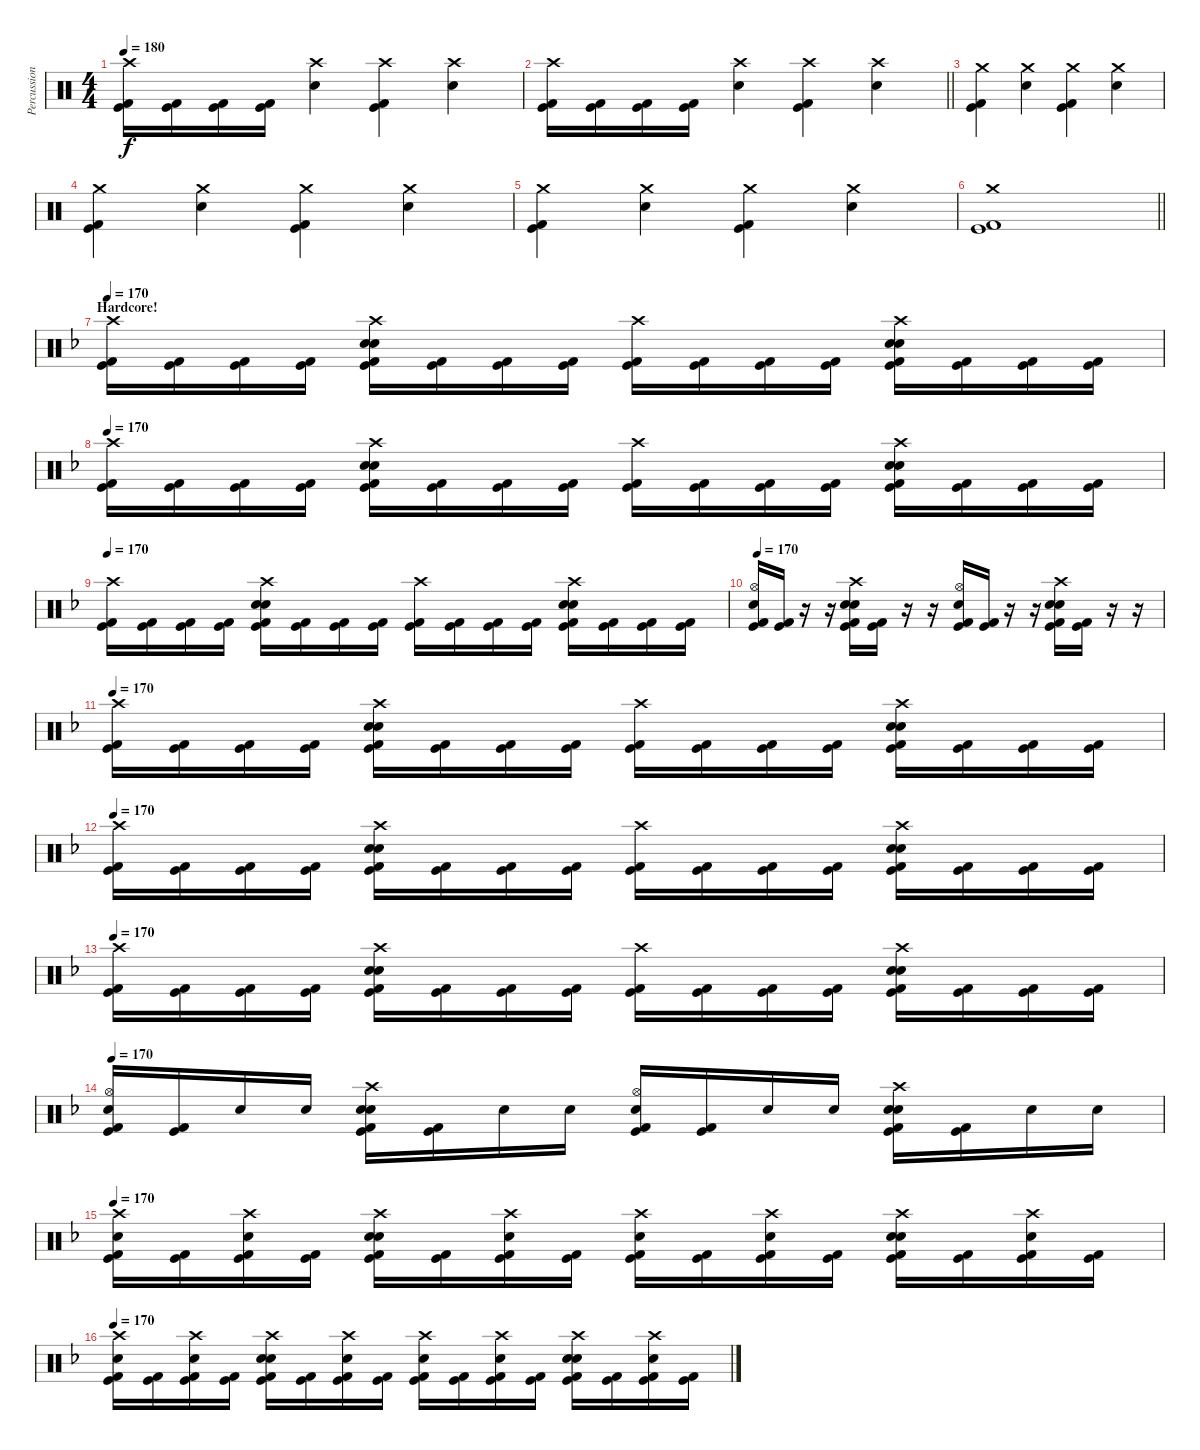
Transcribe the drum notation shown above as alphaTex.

\track ("Percussion" "Percussion") {instrument percussion}
\staff {score}
\articulation defaults
\ts (4 4)
\tempo 180
\clef neutral
\ks c
("Crash high (hit)" "Kick (hit) 2" "Kick (hit)").16{dy f} ("Kick (hit) 2" "Kick (hit)").16 ("Kick (hit) 2" "Kick (hit)").16 ("Kick (hit) 2" "Kick (hit)").16 ("Crash high (hit)" "Electric Snare (hit)").4 ("Crash high (hit)" "Kick (hit) 2" "Kick (hit)").4 ("Crash high (hit)" "Electric Snare (hit)").4 |
\barLineRight lightlight
("Crash high (hit)" "Kick (hit) 2" "Kick (hit)").16 ("Kick (hit) 2" "Kick (hit)").16 ("Kick (hit) 2" "Kick (hit)").16 ("Kick (hit) 2" "Kick (hit)").16 ("Crash high (hit)" "Electric Snare (hit)").4 ("Crash high (hit)" "Kick (hit) 2" "Kick (hit)").4 ("Crash high (hit)" "Electric Snare (hit)").4 |
("Crash medium (hit)" "Kick (hit) 2" "Kick (hit)").4 ("Crash medium (hit)" "Electric Snare (hit)").4 ("Crash medium (hit)" "Kick (hit) 2" "Kick (hit)").4 ("Crash medium (hit)" "Electric Snare (hit)").4 |
("Crash medium (hit)" "Kick (hit) 2" "Kick (hit)").4 ("Crash medium (hit)" "Electric Snare (hit)").4 ("Crash medium (hit)" "Kick (hit) 2" "Kick (hit)").4 ("Crash medium (hit)" "Electric Snare (hit)").4 |
("Crash medium (hit)" "Kick (hit) 2" "Kick (hit)").4 ("Crash medium (hit)" "Electric Snare (hit)").4 ("Crash medium (hit)" "Kick (hit) 2" "Kick (hit)").4 ("Crash medium (hit)" "Electric Snare (hit)").4 |
\barLineRight lightlight
("Crash medium (hit)" "Kick (hit) 2" "Kick (hit)").1 |
\section ("" "Hardcore!")
\tempo 170
\ks dminor
("Crash high (hit)" "Kick (hit) 2" "Kick (hit)").16 ("Kick (hit) 2" "Kick (hit)").16 ("Kick (hit) 2" "Kick (hit)").16 ("Kick (hit) 2" "Kick (hit)").16 ("Crash high (hit)" "Electric Snare (hit)" "Electric Snare (hit)" "Kick (hit) 2" "Kick (hit)").16 ("Kick (hit) 2" "Kick (hit)").16 ("Kick (hit) 2" "Kick (hit)").16 ("Kick (hit) 2" "Kick (hit)").16 ("Crash high (hit)" "Kick (hit) 2" "Kick (hit)").16 ("Kick (hit) 2" "Kick (hit)").16 ("Kick (hit) 2" "Kick (hit)").16 ("Kick (hit) 2" "Kick (hit)").16 ("Crash high (hit)" "Electric Snare (hit)" "Electric Snare (hit)" "Kick (hit) 2" "Kick (hit)").16 ("Kick (hit) 2" "Kick (hit)").16 ("Kick (hit) 2" "Kick (hit)").16 ("Kick (hit) 2" "Kick (hit)").16 |
\tempo 170
("Crash high (hit)" "Kick (hit) 2" "Kick (hit)").16 ("Kick (hit) 2" "Kick (hit)").16 ("Kick (hit) 2" "Kick (hit)").16 ("Kick (hit) 2" "Kick (hit)").16 ("Crash high (hit)" "Electric Snare (hit)" "Electric Snare (hit)" "Kick (hit) 2" "Kick (hit)").16 ("Kick (hit) 2" "Kick (hit)").16 ("Kick (hit) 2" "Kick (hit)").16 ("Kick (hit) 2" "Kick (hit)").16 ("Crash high (hit)" "Kick (hit) 2" "Kick (hit)").16 ("Kick (hit) 2" "Kick (hit)").16 ("Kick (hit) 2" "Kick (hit)").16 ("Kick (hit) 2" "Kick (hit)").16 ("Crash high (hit)" "Electric Snare (hit)" "Electric Snare (hit)" "Kick (hit) 2" "Kick (hit)").16 ("Kick (hit) 2" "Kick (hit)").16 ("Kick (hit) 2" "Kick (hit)").16 ("Kick (hit) 2" "Kick (hit)").16 |
\tempo 170
("Crash high (hit)" "Kick (hit) 2" "Kick (hit)").16 ("Kick (hit) 2" "Kick (hit)").16 ("Kick (hit) 2" "Kick (hit)").16 ("Kick (hit) 2" "Kick (hit)").16 ("Crash high (hit)" "Electric Snare (hit)" "Electric Snare (hit)" "Kick (hit) 2" "Kick (hit)").16 ("Kick (hit) 2" "Kick (hit)").16 ("Kick (hit) 2" "Kick (hit)").16 ("Kick (hit) 2" "Kick (hit)").16 ("Crash high (hit)" "Kick (hit) 2" "Kick (hit)").16 ("Kick (hit) 2" "Kick (hit)").16 ("Kick (hit) 2" "Kick (hit)").16 ("Kick (hit) 2" "Kick (hit)").16 ("Crash high (hit)" "Electric Snare (hit)" "Electric Snare (hit)" "Kick (hit) 2" "Kick (hit)").16 ("Kick (hit) 2" "Kick (hit)").16 ("Kick (hit) 2" "Kick (hit)").16 ("Kick (hit) 2" "Kick (hit)").16 |
\tempo 170
("Hi-Hat (open)" "Snare (hit) 2" "Kick (hit) 2" "Kick (hit)").16 ("Kick (hit) 2" "Kick (hit)").16 r.16 r.16 ("Crash high (hit)" "Electric Snare (hit)" "Electric Snare (hit)" "Kick (hit) 2" "Kick (hit)").16 ("Kick (hit) 2" "Kick (hit)").16 r.16 r.16 ("Hi-Hat (open)" "Snare (hit) 2" "Kick (hit) 2" "Kick (hit)").16 ("Kick (hit) 2" "Kick (hit)").16 r.16 r.16 ("Crash high (hit)" "Electric Snare (hit)" "Electric Snare (hit)" "Kick (hit) 2" "Kick (hit)").16 ("Kick (hit) 2" "Kick (hit)").16 r.16 r.16 |
\tempo 170
("Crash high (hit)" "Kick (hit) 2" "Kick (hit)").16 ("Kick (hit) 2" "Kick (hit)").16 ("Kick (hit) 2" "Kick (hit)").16 ("Kick (hit) 2" "Kick (hit)").16 ("Crash high (hit)" "Electric Snare (hit)" "Electric Snare (hit)" "Kick (hit) 2" "Kick (hit)").16 ("Kick (hit) 2" "Kick (hit)").16 ("Kick (hit) 2" "Kick (hit)").16 ("Kick (hit) 2" "Kick (hit)").16 ("Crash high (hit)" "Kick (hit) 2" "Kick (hit)").16 ("Kick (hit) 2" "Kick (hit)").16 ("Kick (hit) 2" "Kick (hit)").16 ("Kick (hit) 2" "Kick (hit)").16 ("Crash high (hit)" "Electric Snare (hit)" "Electric Snare (hit)" "Kick (hit) 2" "Kick (hit)").16 ("Kick (hit) 2" "Kick (hit)").16 ("Kick (hit) 2" "Kick (hit)").16 ("Kick (hit) 2" "Kick (hit)").16 |
\tempo 170
("Crash high (hit)" "Kick (hit) 2" "Kick (hit)").16 ("Kick (hit) 2" "Kick (hit)").16 ("Kick (hit) 2" "Kick (hit)").16 ("Kick (hit) 2" "Kick (hit)").16 ("Crash high (hit)" "Electric Snare (hit)" "Electric Snare (hit)" "Kick (hit) 2" "Kick (hit)").16 ("Kick (hit) 2" "Kick (hit)").16 ("Kick (hit) 2" "Kick (hit)").16 ("Kick (hit) 2" "Kick (hit)").16 ("Crash high (hit)" "Kick (hit) 2" "Kick (hit)").16 ("Kick (hit) 2" "Kick (hit)").16 ("Kick (hit) 2" "Kick (hit)").16 ("Kick (hit) 2" "Kick (hit)").16 ("Crash high (hit)" "Electric Snare (hit)" "Electric Snare (hit)" "Kick (hit) 2" "Kick (hit)").16 ("Kick (hit) 2" "Kick (hit)").16 ("Kick (hit) 2" "Kick (hit)").16 ("Kick (hit) 2" "Kick (hit)").16 |
\tempo 170
("Crash high (hit)" "Kick (hit) 2" "Kick (hit)").16 ("Kick (hit) 2" "Kick (hit)").16 ("Kick (hit) 2" "Kick (hit)").16 ("Kick (hit) 2" "Kick (hit)").16 ("Crash high (hit)" "Electric Snare (hit)" "Electric Snare (hit)" "Kick (hit) 2" "Kick (hit)").16 ("Kick (hit) 2" "Kick (hit)").16 ("Kick (hit) 2" "Kick (hit)").16 ("Kick (hit) 2" "Kick (hit)").16 ("Crash high (hit)" "Kick (hit) 2" "Kick (hit)").16 ("Kick (hit) 2" "Kick (hit)").16 ("Kick (hit) 2" "Kick (hit)").16 ("Kick (hit) 2" "Kick (hit)").16 ("Crash high (hit)" "Electric Snare (hit)" "Electric Snare (hit)" "Kick (hit) 2" "Kick (hit)").16 ("Kick (hit) 2" "Kick (hit)").16 ("Kick (hit) 2" "Kick (hit)").16 ("Kick (hit) 2" "Kick (hit)").16 |
\tempo 170
("Hi-Hat (open)" "Snare (hit) 2" "Kick (hit) 2" "Kick (hit)").16 ("Kick (hit) 2" "Kick (hit)").16 "Electric Snare (hit)".16 "Electric Snare (hit)".16 ("Crash high (hit)" "Electric Snare (hit)" "Electric Snare (hit)" "Kick (hit) 2" "Kick (hit)").16 ("Kick (hit) 2" "Kick (hit)").16 "Electric Snare (hit)".16 "Electric Snare (hit)".16 ("Hi-Hat (open)" "Snare (hit) 2" "Kick (hit) 2" "Kick (hit)").16 ("Kick (hit) 2" "Kick (hit)").16 "Electric Snare (hit)".16 "Electric Snare (hit)".16 ("Crash high (hit)" "Electric Snare (hit)" "Electric Snare (hit)" "Kick (hit) 2" "Kick (hit)").16 ("Kick (hit) 2" "Kick (hit)").16 "Electric Snare (hit)".16 "Electric Snare (hit)".16 |
\tempo 170
("Crash high (hit)" "Electric Snare (hit)" "Kick (hit) 2" "Kick (hit)").16 ("Kick (hit) 2" "Kick (hit)").16 ("Crash high (hit)" "Electric Snare (hit)" "Kick (hit) 2" "Kick (hit)").16 ("Kick (hit) 2" "Kick (hit)").16 ("Crash high (hit)" "Electric Snare (hit)" "Electric Snare (hit)" "Kick (hit) 2" "Kick (hit)").16 ("Kick (hit) 2" "Kick (hit)").16 ("Crash high (hit)" "Electric Snare (hit)" "Kick (hit) 2" "Kick (hit)").16 ("Kick (hit) 2" "Kick (hit)").16 ("Crash high (hit)" "Electric Snare (hit)" "Kick (hit) 2" "Kick (hit)").16 ("Kick (hit) 2" "Kick (hit)").16 ("Crash high (hit)" "Electric Snare (hit)" "Kick (hit) 2" "Kick (hit)").16 ("Kick (hit) 2" "Kick (hit)").16 ("Crash high (hit)" "Electric Snare (hit)" "Electric Snare (hit)" "Kick (hit) 2" "Kick (hit)").16 ("Kick (hit) 2" "Kick (hit)").16 ("Crash high (hit)" "Electric Snare (hit)" "Kick (hit) 2" "Kick (hit)").16 ("Kick (hit) 2" "Kick (hit)").16 |
\tempo 170
("Crash high (hit)" "Electric Snare (hit)" "Kick (hit) 2" "Kick (hit)").16 ("Kick (hit) 2" "Kick (hit)").16 ("Crash high (hit)" "Electric Snare (hit)" "Kick (hit) 2" "Kick (hit)").16 ("Kick (hit) 2" "Kick (hit)").16 ("Crash high (hit)" "Electric Snare (hit)" "Electric Snare (hit)" "Kick (hit) 2" "Kick (hit)").16 ("Kick (hit) 2" "Kick (hit)").16 ("Crash high (hit)" "Electric Snare (hit)" "Kick (hit) 2" "Kick (hit)").16 ("Kick (hit) 2" "Kick (hit)").16 ("Crash high (hit)" "Electric Snare (hit)" "Kick (hit) 2" "Kick (hit)").16 ("Kick (hit) 2" "Kick (hit)").16 ("Crash high (hit)" "Electric Snare (hit)" "Kick (hit) 2" "Kick (hit)").16 ("Kick (hit) 2" "Kick (hit)").16 ("Crash high (hit)" "Electric Snare (hit)" "Electric Snare (hit)" "Kick (hit) 2" "Kick (hit)").16 ("Kick (hit) 2" "Kick (hit)").16 ("Crash high (hit)" "Electric Snare (hit)" "Kick (hit) 2" "Kick (hit)").16 ("Kick (hit) 2" "Kick (hit)").16
